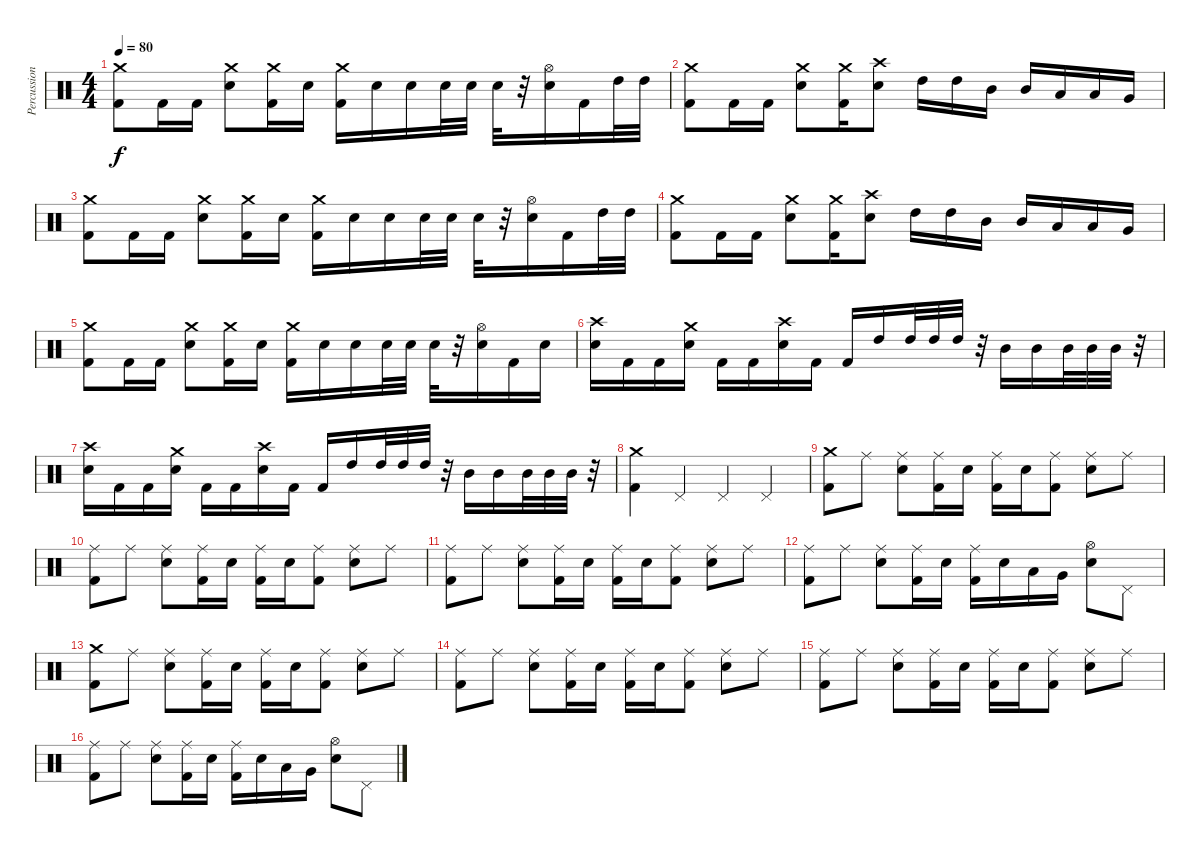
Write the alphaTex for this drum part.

\track ("Percussion" "Percussion") {instrument percussion}
\staff {score}
\articulation defaults
\ts (4 4)
\tempo 80
\clef neutral
\ks c
("Crash medium (hit)" "Kick (hit) 2").8{dy f} "Kick (hit) 2".16 "Kick (hit) 2".16 ("Crash medium (hit)" "Electric Snare (hit)").8 ("Crash medium (hit)" "Kick (hit) 2").16 "Electric Snare (hit)".16 ("Crash medium (hit)" "Kick (hit) 2").16 "Electric Snare (hit)".16 "Electric Snare (hit)".16 "Electric Snare (hit)".32 "Electric Snare (hit)".32 "Electric Snare (hit)".32 r.32 ("Hi-Hat (open)" "Electric Snare (hit)").16 "Kick (hit) 2".16 "High Tom (hit)".32 "High Tom (hit)".32 |
("Crash medium (hit)" "Kick (hit) 2").8 "Kick (hit) 2".16 "Kick (hit) 2".16 ("Crash medium (hit)" "Electric Snare (hit)").8 ("Crash medium (hit)" "Kick (hit) 2").16 ("Crash high (hit)" "Electric Snare (hit)").8 "High Tom (hit)".16 "High Tom (hit)".16 "Mid Tom (hit)".16 "Mid Tom (hit)".16 "Low Tom (hit)".16 "Low Tom (hit)".16 "Very Low Tom (hit)".16 |
("Crash medium (hit)" "Kick (hit) 2").8 "Kick (hit) 2".16 "Kick (hit) 2".16 ("Crash medium (hit)" "Electric Snare (hit)").8 ("Crash medium (hit)" "Kick (hit) 2").16 "Electric Snare (hit)".16 ("Crash medium (hit)" "Kick (hit) 2").16 "Electric Snare (hit)".16 "Electric Snare (hit)".16 "Electric Snare (hit)".32 "Electric Snare (hit)".32 "Electric Snare (hit)".32 r.32 ("Hi-Hat (open)" "Electric Snare (hit)").16 "Kick (hit) 2".16 "High Tom (hit)".32 "High Tom (hit)".32 |
("Crash medium (hit)" "Kick (hit) 2").8 "Kick (hit) 2".16 "Kick (hit) 2".16 ("Crash medium (hit)" "Electric Snare (hit)").8 ("Crash medium (hit)" "Kick (hit) 2").16 ("Crash high (hit)" "Electric Snare (hit)").8 "High Tom (hit)".16 "High Tom (hit)".16 "Mid Tom (hit)".16 "Mid Tom (hit)".16 "Low Tom (hit)".16 "Low Tom (hit)".16 "Very Low Tom (hit)".16 |
("Crash medium (hit)" "Kick (hit) 2").8 "Kick (hit) 2".16 "Kick (hit) 2".16 ("Crash medium (hit)" "Electric Snare (hit)").8 ("Crash medium (hit)" "Kick (hit) 2").16 "Electric Snare (hit)".16 ("Crash medium (hit)" "Kick (hit) 2").16 "Electric Snare (hit)".16 "Electric Snare (hit)".16 "Electric Snare (hit)".32 "Electric Snare (hit)".32 "Electric Snare (hit)".32 r.32 ("Hi-Hat (open)" "Electric Snare (hit)").16 "Kick (hit) 2".16 "Electric Snare (hit)".16 |
("Crash high (hit)" "Electric Snare (hit)").16 "Kick (hit) 2".16 "Kick (hit) 2".16 ("Crash medium (hit)" "Electric Snare (hit)").16 "Kick (hit) 2".16 "Kick (hit) 2".16 ("Crash high (hit)" "Electric Snare (hit)").16 "Kick (hit) 2".16 "Kick (hit) 2".16 "High Tom (hit)".16 "High Tom (hit)".32 "High Tom (hit)".32 "High Tom (hit)".32 r.32 "Mid Tom (hit)".16 "Mid Tom (hit)".16 "Mid Tom (hit)".32 "Mid Tom (hit)".32 "Mid Tom (hit)".32 r.32 |
("Crash high (hit)" "Electric Snare (hit)").16 "Kick (hit) 2".16 "Kick (hit) 2".16 ("Crash medium (hit)" "Electric Snare (hit)").16 "Kick (hit) 2".16 "Kick (hit) 2".16 ("Crash high (hit)" "Electric Snare (hit)").16 "Kick (hit) 2".16 "Kick (hit) 2".16 "High Tom (hit)".16 "High Tom (hit)".32 "High Tom (hit)".32 "High Tom (hit)".32 r.32 "Mid Tom (hit)".16 "Mid Tom (hit)".16 "Mid Tom (hit)".32 "Mid Tom (hit)".32 "Mid Tom (hit)".32 r.32 |
("Crash medium (hit)" "Kick (hit) 2").4 "Pedal Hi-Hat (hit)".4 "Pedal Hi-Hat (hit)".4 "Pedal Hi-Hat (hit)".4 |
("Crash medium (hit)" "Kick (hit) 2").8{volume 7} "Ride (middle)".8 ("Ride (middle)" "Electric Snare (hit)").8 ("Ride (middle)" "Kick (hit) 2").16 "Electric Snare (hit)".16 ("Ride (middle)" "Kick (hit) 2").16 "Electric Snare (hit)".16 ("Ride (middle)" "Kick (hit) 2").8 ("Ride (middle)" "Electric Snare (hit)").8 "Ride (middle)".8 |
("Ride (middle)" "Kick (hit) 2").8 "Ride (middle)".8 ("Ride (middle)" "Electric Snare (hit)").8 ("Ride (middle)" "Kick (hit) 2").16 "Electric Snare (hit)".16 ("Ride (middle)" "Kick (hit) 2").16 "Electric Snare (hit)".16 ("Ride (middle)" "Kick (hit) 2").8 ("Ride (middle)" "Electric Snare (hit)").8 "Ride (middle)".8 |
("Ride (middle)" "Kick (hit) 2").8 "Ride (middle)".8 ("Ride (middle)" "Electric Snare (hit)").8 ("Ride (middle)" "Kick (hit) 2").16 "Electric Snare (hit)".16 ("Ride (middle)" "Kick (hit) 2").16 "Electric Snare (hit)".16 ("Ride (middle)" "Kick (hit) 2").8 ("Ride (middle)" "Electric Snare (hit)").8 "Ride (middle)".8 |
("Ride (middle)" "Kick (hit) 2").8 "Ride (middle)".8 ("Ride (middle)" "Electric Snare (hit)").8 ("Ride (middle)" "Kick (hit) 2").16 "Electric Snare (hit)".16 ("Ride (middle)" "Kick (hit) 2").16 "Electric Snare (hit)".16 "Low Tom (hit)".16 "Very Low Tom (hit)".16 ("Hi-Hat (open)" "Electric Snare (hit)").8 "Pedal Hi-Hat (hit)".8 |
("Crash medium (hit)" "Kick (hit) 2").8{volume 7} "Ride (middle)".8 ("Ride (middle)" "Electric Snare (hit)").8 ("Ride (middle)" "Kick (hit) 2").16 "Electric Snare (hit)".16 ("Ride (middle)" "Kick (hit) 2").16 "Electric Snare (hit)".16 ("Ride (middle)" "Kick (hit) 2").8 ("Ride (middle)" "Electric Snare (hit)").8 "Ride (middle)".8 |
("Ride (middle)" "Kick (hit) 2").8 "Ride (middle)".8 ("Ride (middle)" "Electric Snare (hit)").8 ("Ride (middle)" "Kick (hit) 2").16 "Electric Snare (hit)".16 ("Ride (middle)" "Kick (hit) 2").16 "Electric Snare (hit)".16 ("Ride (middle)" "Kick (hit) 2").8 ("Ride (middle)" "Electric Snare (hit)").8 "Ride (middle)".8 |
("Ride (middle)" "Kick (hit) 2").8 "Ride (middle)".8 ("Ride (middle)" "Electric Snare (hit)").8 ("Ride (middle)" "Kick (hit) 2").16 "Electric Snare (hit)".16 ("Ride (middle)" "Kick (hit) 2").16 "Electric Snare (hit)".16 ("Ride (middle)" "Kick (hit) 2").8 ("Ride (middle)" "Electric Snare (hit)").8 "Ride (middle)".8 |
("Ride (middle)" "Kick (hit) 2").8 "Ride (middle)".8 ("Ride (middle)" "Electric Snare (hit)").8 ("Ride (middle)" "Kick (hit) 2").16 "Electric Snare (hit)".16 ("Ride (middle)" "Kick (hit) 2").16 "Electric Snare (hit)".16 "Low Tom (hit)".16 "Very Low Tom (hit)".16 ("Hi-Hat (open)" "Electric Snare (hit)").8 "Pedal Hi-Hat (hit)".8
